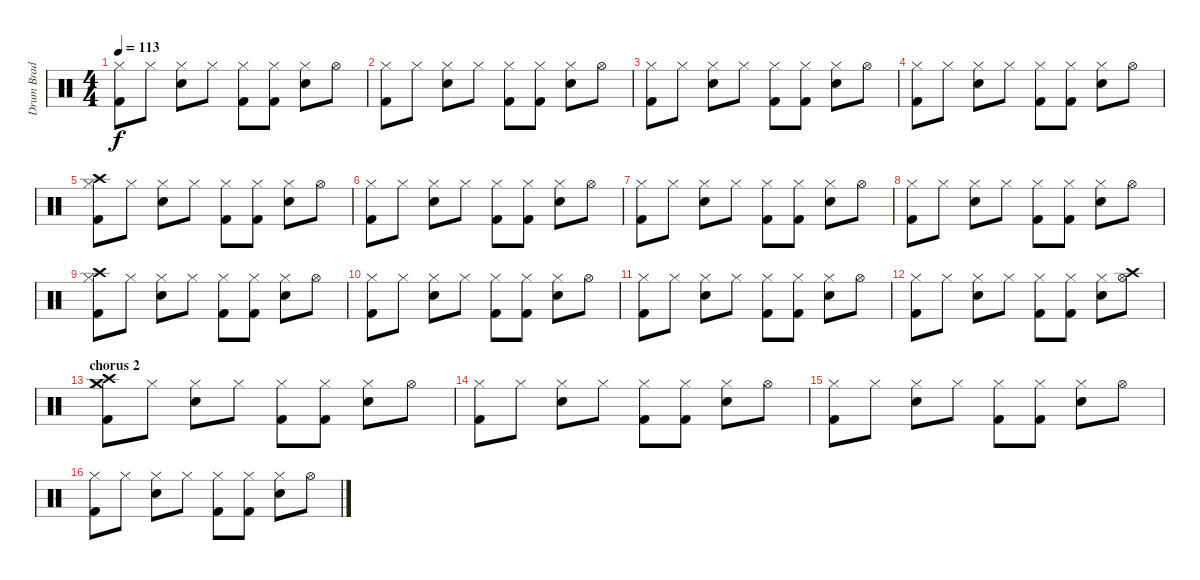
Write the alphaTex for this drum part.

\track ("Drum Brad Wilk" "Drum Brad ") {instrument percussion}
\staff {score}
\articulation defaults
\ts (4 4)
\tempo 113
\clef neutral
\ks c
("Hi-Hat (closed)" "Kick (hit) 2").8{dy f} "Hi-Hat (closed)".8 ("Hi-Hat (closed)" "Snare (hit) 2").8 "Hi-Hat (closed)".8 ("Hi-Hat (closed)" "Kick (hit) 2").8 ("Hi-Hat (closed)" "Kick (hit) 2").8 ("Hi-Hat (closed)" "Snare (hit) 2").8 "Hi-Hat (open)".8 |
("Hi-Hat (closed)" "Kick (hit) 2").8 "Hi-Hat (closed)".8 ("Hi-Hat (closed)" "Snare (hit) 2").8 "Hi-Hat (closed)".8 ("Hi-Hat (closed)" "Kick (hit) 2").8 ("Hi-Hat (closed)" "Kick (hit) 2").8 ("Hi-Hat (closed)" "Snare (hit) 2").8 "Hi-Hat (open)".8 |
("Hi-Hat (closed)" "Kick (hit) 2").8 "Hi-Hat (closed)".8 ("Hi-Hat (closed)" "Snare (hit) 2").8 "Hi-Hat (closed)".8 ("Hi-Hat (closed)" "Kick (hit) 2").8 ("Hi-Hat (closed)" "Kick (hit) 2").8 ("Hi-Hat (closed)" "Snare (hit) 2").8 "Hi-Hat (open)".8 |
("Hi-Hat (closed)" "Kick (hit) 2").8 "Hi-Hat (closed)".8 ("Hi-Hat (closed)" "Snare (hit) 2").8 "Hi-Hat (closed)".8 ("Hi-Hat (closed)" "Kick (hit) 2").8 ("Hi-Hat (closed)" "Kick (hit) 2").8 ("Hi-Hat (closed)" "Snare (hit) 2").8 "Hi-Hat (open)".8 |
("Hi-Hat (closed)" "Crash high (hit)" "Kick (hit) 2").8 "Hi-Hat (closed)".8 ("Hi-Hat (closed)" "Snare (hit) 2").8 "Hi-Hat (closed)".8 ("Hi-Hat (closed)" "Kick (hit) 2").8 ("Hi-Hat (closed)" "Kick (hit) 2").8 ("Hi-Hat (closed)" "Snare (hit) 2").8 "Hi-Hat (open)".8 |
("Hi-Hat (closed)" "Kick (hit) 2").8 "Hi-Hat (closed)".8 ("Hi-Hat (closed)" "Snare (hit) 2").8 "Hi-Hat (closed)".8 ("Hi-Hat (closed)" "Kick (hit) 2").8 ("Hi-Hat (closed)" "Kick (hit) 2").8 ("Hi-Hat (closed)" "Snare (hit) 2").8 "Hi-Hat (open)".8 |
("Hi-Hat (closed)" "Kick (hit) 2").8 "Hi-Hat (closed)".8 ("Hi-Hat (closed)" "Snare (hit) 2").8 "Hi-Hat (closed)".8 ("Hi-Hat (closed)" "Kick (hit) 2").8 ("Hi-Hat (closed)" "Kick (hit) 2").8 ("Hi-Hat (closed)" "Snare (hit) 2").8 "Hi-Hat (open)".8 |
("Hi-Hat (closed)" "Kick (hit) 2").8 "Hi-Hat (closed)".8 ("Hi-Hat (closed)" "Snare (hit) 2").8 "Hi-Hat (closed)".8 ("Hi-Hat (closed)" "Kick (hit) 2").8 ("Hi-Hat (closed)" "Kick (hit) 2").8 ("Hi-Hat (closed)" "Snare (hit) 2").8 "Hi-Hat (open)".8 |
("Hi-Hat (closed)" "Crash high (hit)" "Kick (hit) 2").8 "Hi-Hat (closed)".8 ("Hi-Hat (closed)" "Snare (hit) 2").8 "Hi-Hat (closed)".8 ("Hi-Hat (closed)" "Kick (hit) 2").8 ("Hi-Hat (closed)" "Kick (hit) 2").8 ("Hi-Hat (closed)" "Snare (hit) 2").8 "Hi-Hat (open)".8 |
("Hi-Hat (closed)" "Kick (hit) 2").8 "Hi-Hat (closed)".8 ("Hi-Hat (closed)" "Snare (hit) 2").8 "Hi-Hat (closed)".8 ("Hi-Hat (closed)" "Kick (hit) 2").8 ("Hi-Hat (closed)" "Kick (hit) 2").8 ("Hi-Hat (closed)" "Snare (hit) 2").8 "Hi-Hat (open)".8 |
("Hi-Hat (closed)" "Kick (hit) 2").8 "Hi-Hat (closed)".8 ("Hi-Hat (closed)" "Snare (hit) 2").8 "Hi-Hat (closed)".8 ("Hi-Hat (closed)" "Kick (hit) 2").8 ("Hi-Hat (closed)" "Kick (hit) 2").8 ("Hi-Hat (closed)" "Snare (hit) 2").8 "Hi-Hat (open)".8 |
("Hi-Hat (closed)" "Kick (hit) 2").8 "Hi-Hat (closed)".8 ("Hi-Hat (closed)" "Snare (hit) 2").8 "Hi-Hat (closed)".8 ("Hi-Hat (closed)" "Kick (hit) 2").8 ("Hi-Hat (closed)" "Kick (hit) 2").8 ("Hi-Hat (closed)" "Snare (hit) 2").8 ("Hi-Hat (open)" "Crash high (hit)").8 |
\section ("" "chorus 2")
("Hi-Hat (closed)" "Crash medium (hit)" "Crash high (hit)" "Kick (hit) 2").8 "Hi-Hat (closed)".8 ("Hi-Hat (closed)" "Snare (hit) 2").8 "Hi-Hat (closed)".8 ("Hi-Hat (closed)" "Kick (hit) 2").8 ("Hi-Hat (closed)" "Kick (hit) 2").8 ("Hi-Hat (closed)" "Snare (hit) 2").8 "Hi-Hat (open)".8 |
("Hi-Hat (closed)" "Kick (hit) 2").8 "Hi-Hat (closed)".8 ("Hi-Hat (closed)" "Snare (hit) 2").8 "Hi-Hat (closed)".8 ("Hi-Hat (closed)" "Kick (hit) 2").8 ("Hi-Hat (closed)" "Kick (hit) 2").8 ("Hi-Hat (closed)" "Snare (hit) 2").8 "Hi-Hat (open)".8 |
("Hi-Hat (closed)" "Kick (hit) 2").8 "Hi-Hat (closed)".8 ("Hi-Hat (closed)" "Snare (hit) 2").8 "Hi-Hat (closed)".8 ("Hi-Hat (closed)" "Kick (hit) 2").8 ("Hi-Hat (closed)" "Kick (hit) 2").8 ("Hi-Hat (closed)" "Snare (hit) 2").8 "Hi-Hat (open)".8 |
("Hi-Hat (closed)" "Kick (hit) 2").8 "Hi-Hat (closed)".8 ("Hi-Hat (closed)" "Snare (hit) 2").8 "Hi-Hat (closed)".8 ("Hi-Hat (closed)" "Kick (hit) 2").8 ("Hi-Hat (closed)" "Kick (hit) 2").8 ("Hi-Hat (closed)" "Snare (hit) 2").8 "Hi-Hat (open)".8
